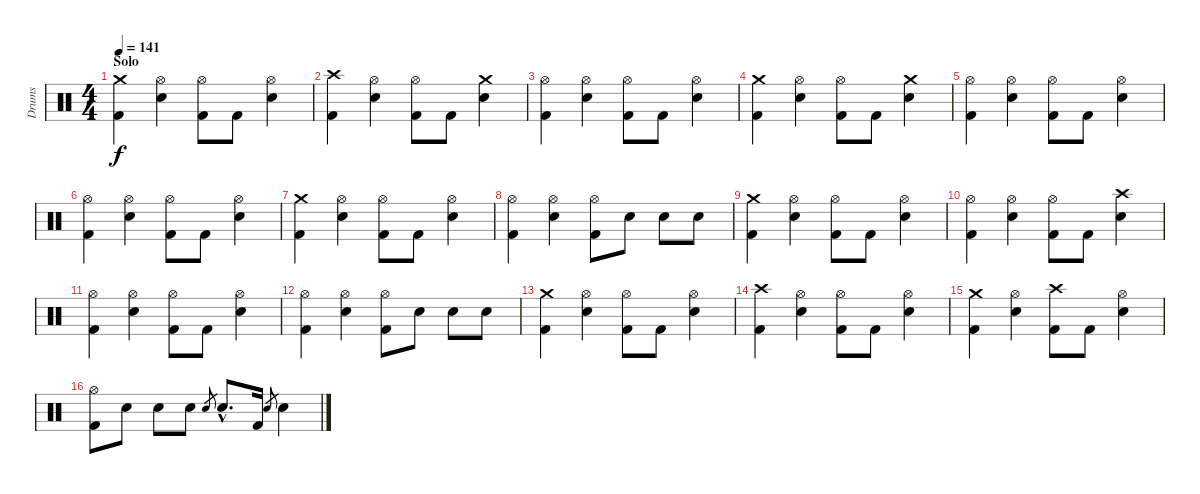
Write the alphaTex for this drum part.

\track ("Drums" "Drums") {instrument percussion}
\staff {score}
\articulation defaults
\ts (4 4)
\section ("" "Solo")
\tempo 141
\clef neutral
\ks c
("Crash medium (hit)" "Kick (hit) 2").4{dy f volume 16} ("Hi-Hat (open)" "Electric Snare (hit)").4 ("Hi-Hat (open)" "Kick (hit) 2").8 "Kick (hit) 2".8 ("Hi-Hat (open)" "Electric Snare (hit)").4 |
("Crash high (hit)" "Kick (hit) 2").4 ("Hi-Hat (open)" "Electric Snare (hit)").4 ("Hi-Hat (open)" "Kick (hit) 2").8 "Kick (hit) 2".8 ("Crash medium (hit)" "Electric Snare (hit)").4 |
("Hi-Hat (open)" "Kick (hit) 2").4 ("Hi-Hat (open)" "Electric Snare (hit)").4 ("Hi-Hat (open)" "Kick (hit) 2").8 "Kick (hit) 2".8 ("Hi-Hat (open)" "Electric Snare (hit)").4 |
("Crash medium (hit)" "Kick (hit) 2").4 ("Hi-Hat (open)" "Electric Snare (hit)").4 ("Hi-Hat (open)" "Kick (hit) 2").8 "Kick (hit) 2".8 ("Crash medium (hit)" "Electric Snare (hit)").4 |
("Hi-Hat (open)" "Kick (hit) 2").4 ("Hi-Hat (open)" "Electric Snare (hit)").4 ("Hi-Hat (open)" "Kick (hit) 2").8 "Kick (hit) 2".8 ("Hi-Hat (open)" "Electric Snare (hit)").4 |
("Hi-Hat (open)" "Kick (hit) 2").4 ("Hi-Hat (open)" "Electric Snare (hit)").4 ("Hi-Hat (open)" "Kick (hit) 2").8 "Kick (hit) 2".8 ("Hi-Hat (open)" "Electric Snare (hit)").4 |
("Crash medium (hit)" "Kick (hit) 2").4 ("Hi-Hat (open)" "Electric Snare (hit)").4 ("Hi-Hat (open)" "Kick (hit) 2").8 "Kick (hit) 2".8 ("Hi-Hat (open)" "Electric Snare (hit)").4 |
("Hi-Hat (open)" "Kick (hit) 2").4 ("Hi-Hat (open)" "Electric Snare (hit)").4 ("Hi-Hat (open)" "Kick (hit) 2").8 "Electric Snare (hit)".8 "Electric Snare (hit)".8 "Electric Snare (hit)".8 |
("Crash medium (hit)" "Kick (hit) 2").4 ("Hi-Hat (open)" "Electric Snare (hit)").4 ("Hi-Hat (open)" "Kick (hit) 2").8 "Kick (hit) 2".8 ("Hi-Hat (open)" "Electric Snare (hit)").4 |
("Hi-Hat (open)" "Kick (hit) 2").4 ("Hi-Hat (open)" "Electric Snare (hit)").4 ("Hi-Hat (open)" "Kick (hit) 2").8 "Kick (hit) 2".8 ("Crash high (hit)" "Electric Snare (hit)").4 |
("Hi-Hat (open)" "Kick (hit) 2").4 ("Hi-Hat (open)" "Electric Snare (hit)").4 ("Hi-Hat (open)" "Kick (hit) 2").8 "Kick (hit) 2".8 ("Hi-Hat (open)" "Electric Snare (hit)").4 |
("Hi-Hat (open)" "Kick (hit) 2").4 ("Hi-Hat (open)" "Electric Snare (hit)").4 ("Hi-Hat (open)" "Kick (hit) 2").8 "Electric Snare (hit)".8 "Electric Snare (hit)".8 "Electric Snare (hit)".8 |
("Crash medium (hit)" "Kick (hit) 2").4 ("Hi-Hat (open)" "Electric Snare (hit)").4 ("Hi-Hat (open)" "Kick (hit) 2").8 "Kick (hit) 2".8 ("Hi-Hat (open)" "Electric Snare (hit)").4 |
("Crash high (hit)" "Kick (hit) 2").4 ("Hi-Hat (open)" "Electric Snare (hit)").4 ("Hi-Hat (open)" "Kick (hit) 2").8 "Kick (hit) 2".8 ("Hi-Hat (open)" "Electric Snare (hit)").4 |
("Crash medium (hit)" "Kick (hit) 2").4 ("Hi-Hat (open)" "Electric Snare (hit)").4 ("Crash high (hit)" "Kick (hit) 2").8 "Kick (hit) 2".8 ("Hi-Hat (open)" "Electric Snare (hit)").4 |
("Hi-Hat (open)" "Kick (hit) 2").8 "Electric Snare (hit)".8 "Electric Snare (hit)".8 "Electric Snare (hit)".8 "Electric Snare (hit)".8{gr} "Electric Snare (hit)"{hac}.8{d} "Kick (hit) 2".16 "Electric Snare (hit)".8{gr} "Electric Snare (hit)".4
